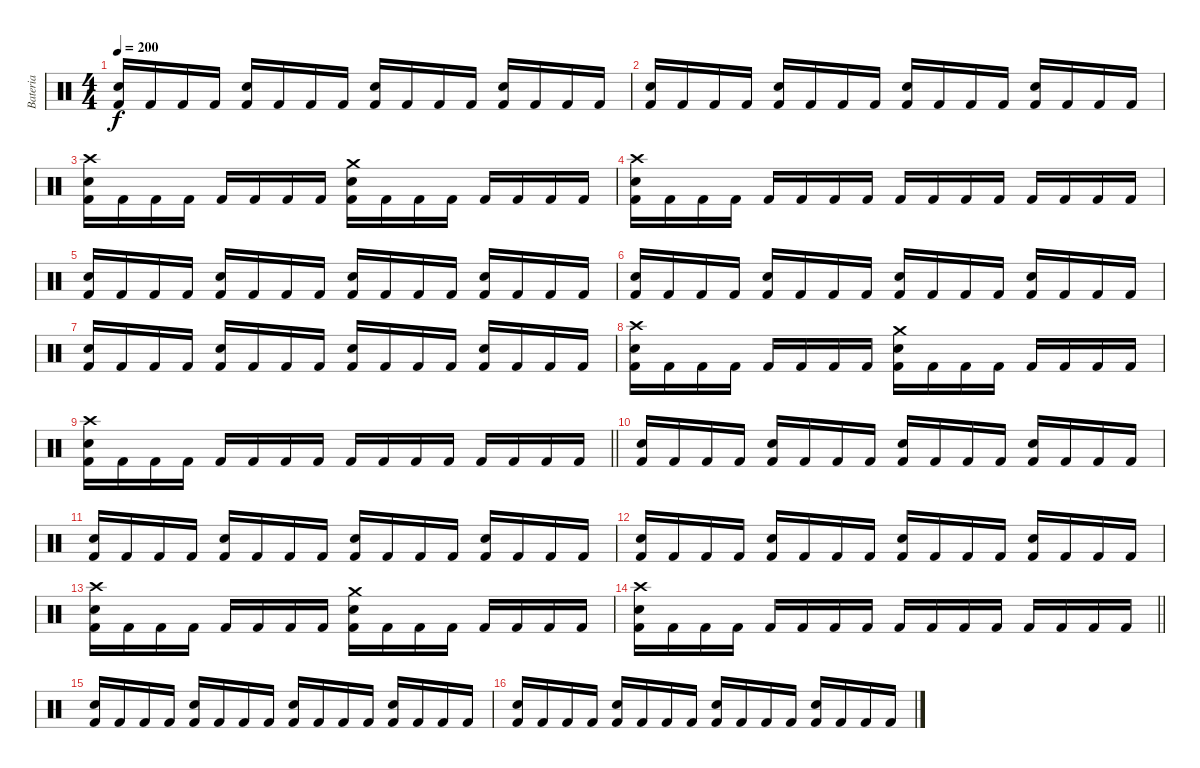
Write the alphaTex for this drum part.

\track ("Bateria" "Bateria") {instrument percussion}
\staff {score}
\articulation defaults
\ts (4 4)
\tempo 200
\clef neutral
\ks c
("Electric Snare (hit)" "Kick (hit) 2").16{dy f} "Kick (hit) 2".16 "Kick (hit) 2".16 "Kick (hit) 2".16 ("Electric Snare (hit)" "Kick (hit) 2").16 "Kick (hit) 2".16 "Kick (hit) 2".16 "Kick (hit) 2".16 ("Electric Snare (hit)" "Kick (hit) 2").16 "Kick (hit) 2".16 "Kick (hit) 2".16 "Kick (hit) 2".16 ("Electric Snare (hit)" "Kick (hit) 2").16 "Kick (hit) 2".16 "Kick (hit) 2".16 "Kick (hit) 2".16 |
("Electric Snare (hit)" "Kick (hit) 2").16 "Kick (hit) 2".16 "Kick (hit) 2".16 "Kick (hit) 2".16 ("Electric Snare (hit)" "Kick (hit) 2").16 "Kick (hit) 2".16 "Kick (hit) 2".16 "Kick (hit) 2".16 ("Electric Snare (hit)" "Kick (hit) 2").16 "Kick (hit) 2".16 "Kick (hit) 2".16 "Kick (hit) 2".16 ("Electric Snare (hit)" "Kick (hit) 2").16 "Kick (hit) 2".16 "Kick (hit) 2".16 "Kick (hit) 2".16 |
("Crash high (hit)" "Electric Snare (hit)" "Kick (hit) 2").16 "Kick (hit) 2".16 "Kick (hit) 2".16 "Kick (hit) 2".16 "Kick (hit) 2".16 "Kick (hit) 2".16 "Kick (hit) 2".16 "Kick (hit) 2".16 ("Crash medium (hit)" "Electric Snare (hit)" "Kick (hit) 2").16 "Kick (hit) 2".16 "Kick (hit) 2".16 "Kick (hit) 2".16 "Kick (hit) 2".16 "Kick (hit) 2".16 "Kick (hit) 2".16 "Kick (hit) 2".16 |
("Crash high (hit)" "Electric Snare (hit)" "Kick (hit) 2").16 "Kick (hit) 2".16 "Kick (hit) 2".16 "Kick (hit) 2".16 "Kick (hit) 2".16 "Kick (hit) 2".16 "Kick (hit) 2".16 "Kick (hit) 2".16 "Kick (hit) 2".16 "Kick (hit) 2".16 "Kick (hit) 2".16 "Kick (hit) 2".16 "Kick (hit) 2".16 "Kick (hit) 2".16 "Kick (hit) 2".16 "Kick (hit) 2".16 |
("Electric Snare (hit)" "Kick (hit) 2").16 "Kick (hit) 2".16 "Kick (hit) 2".16 "Kick (hit) 2".16 ("Electric Snare (hit)" "Kick (hit) 2").16 "Kick (hit) 2".16 "Kick (hit) 2".16 "Kick (hit) 2".16 ("Electric Snare (hit)" "Kick (hit) 2").16 "Kick (hit) 2".16 "Kick (hit) 2".16 "Kick (hit) 2".16 ("Electric Snare (hit)" "Kick (hit) 2").16 "Kick (hit) 2".16 "Kick (hit) 2".16 "Kick (hit) 2".16 |
("Electric Snare (hit)" "Kick (hit) 2").16 "Kick (hit) 2".16 "Kick (hit) 2".16 "Kick (hit) 2".16 ("Electric Snare (hit)" "Kick (hit) 2").16 "Kick (hit) 2".16 "Kick (hit) 2".16 "Kick (hit) 2".16 ("Electric Snare (hit)" "Kick (hit) 2").16 "Kick (hit) 2".16 "Kick (hit) 2".16 "Kick (hit) 2".16 ("Electric Snare (hit)" "Kick (hit) 2").16 "Kick (hit) 2".16 "Kick (hit) 2".16 "Kick (hit) 2".16 |
("Electric Snare (hit)" "Kick (hit) 2").16 "Kick (hit) 2".16 "Kick (hit) 2".16 "Kick (hit) 2".16 ("Electric Snare (hit)" "Kick (hit) 2").16 "Kick (hit) 2".16 "Kick (hit) 2".16 "Kick (hit) 2".16 ("Electric Snare (hit)" "Kick (hit) 2").16 "Kick (hit) 2".16 "Kick (hit) 2".16 "Kick (hit) 2".16 ("Electric Snare (hit)" "Kick (hit) 2").16 "Kick (hit) 2".16 "Kick (hit) 2".16 "Kick (hit) 2".16 |
("Crash high (hit)" "Electric Snare (hit)" "Kick (hit) 2").16 "Kick (hit) 2".16 "Kick (hit) 2".16 "Kick (hit) 2".16 "Kick (hit) 2".16 "Kick (hit) 2".16 "Kick (hit) 2".16 "Kick (hit) 2".16 ("Crash medium (hit)" "Electric Snare (hit)" "Kick (hit) 2").16 "Kick (hit) 2".16 "Kick (hit) 2".16 "Kick (hit) 2".16 "Kick (hit) 2".16 "Kick (hit) 2".16 "Kick (hit) 2".16 "Kick (hit) 2".16 |
\barLineRight lightlight
("Crash high (hit)" "Electric Snare (hit)" "Kick (hit) 2").16 "Kick (hit) 2".16 "Kick (hit) 2".16 "Kick (hit) 2".16 "Kick (hit) 2".16 "Kick (hit) 2".16 "Kick (hit) 2".16 "Kick (hit) 2".16 "Kick (hit) 2".16 "Kick (hit) 2".16 "Kick (hit) 2".16 "Kick (hit) 2".16 "Kick (hit) 2".16 "Kick (hit) 2".16 "Kick (hit) 2".16 "Kick (hit) 2".16 |
("Electric Snare (hit)" "Kick (hit) 2").16 "Kick (hit) 2".16 "Kick (hit) 2".16 "Kick (hit) 2".16 ("Electric Snare (hit)" "Kick (hit) 2").16 "Kick (hit) 2".16 "Kick (hit) 2".16 "Kick (hit) 2".16 ("Electric Snare (hit)" "Kick (hit) 2").16 "Kick (hit) 2".16 "Kick (hit) 2".16 "Kick (hit) 2".16 ("Electric Snare (hit)" "Kick (hit) 2").16 "Kick (hit) 2".16 "Kick (hit) 2".16 "Kick (hit) 2".16 |
("Electric Snare (hit)" "Kick (hit) 2").16 "Kick (hit) 2".16 "Kick (hit) 2".16 "Kick (hit) 2".16 ("Electric Snare (hit)" "Kick (hit) 2").16 "Kick (hit) 2".16 "Kick (hit) 2".16 "Kick (hit) 2".16 ("Electric Snare (hit)" "Kick (hit) 2").16 "Kick (hit) 2".16 "Kick (hit) 2".16 "Kick (hit) 2".16 ("Electric Snare (hit)" "Kick (hit) 2").16 "Kick (hit) 2".16 "Kick (hit) 2".16 "Kick (hit) 2".16 |
("Electric Snare (hit)" "Kick (hit) 2").16 "Kick (hit) 2".16 "Kick (hit) 2".16 "Kick (hit) 2".16 ("Electric Snare (hit)" "Kick (hit) 2").16 "Kick (hit) 2".16 "Kick (hit) 2".16 "Kick (hit) 2".16 ("Electric Snare (hit)" "Kick (hit) 2").16 "Kick (hit) 2".16 "Kick (hit) 2".16 "Kick (hit) 2".16 ("Electric Snare (hit)" "Kick (hit) 2").16 "Kick (hit) 2".16 "Kick (hit) 2".16 "Kick (hit) 2".16 |
("Crash high (hit)" "Electric Snare (hit)" "Kick (hit) 2").16 "Kick (hit) 2".16 "Kick (hit) 2".16 "Kick (hit) 2".16 "Kick (hit) 2".16 "Kick (hit) 2".16 "Kick (hit) 2".16 "Kick (hit) 2".16 ("Crash medium (hit)" "Electric Snare (hit)" "Kick (hit) 2").16 "Kick (hit) 2".16 "Kick (hit) 2".16 "Kick (hit) 2".16 "Kick (hit) 2".16 "Kick (hit) 2".16 "Kick (hit) 2".16 "Kick (hit) 2".16 |
\barLineRight lightlight
("Crash high (hit)" "Electric Snare (hit)" "Kick (hit) 2").16 "Kick (hit) 2".16 "Kick (hit) 2".16 "Kick (hit) 2".16 "Kick (hit) 2".16 "Kick (hit) 2".16 "Kick (hit) 2".16 "Kick (hit) 2".16 "Kick (hit) 2".16 "Kick (hit) 2".16 "Kick (hit) 2".16 "Kick (hit) 2".16 "Kick (hit) 2".16 "Kick (hit) 2".16 "Kick (hit) 2".16 "Kick (hit) 2".16 |
("Electric Snare (hit)" "Kick (hit) 2").16 "Kick (hit) 2".16 "Kick (hit) 2".16 "Kick (hit) 2".16 ("Electric Snare (hit)" "Kick (hit) 2").16 "Kick (hit) 2".16 "Kick (hit) 2".16 "Kick (hit) 2".16 ("Electric Snare (hit)" "Kick (hit) 2").16 "Kick (hit) 2".16 "Kick (hit) 2".16 "Kick (hit) 2".16 ("Electric Snare (hit)" "Kick (hit) 2").16 "Kick (hit) 2".16 "Kick (hit) 2".16 "Kick (hit) 2".16 |
("Electric Snare (hit)" "Kick (hit) 2").16 "Kick (hit) 2".16 "Kick (hit) 2".16 "Kick (hit) 2".16 ("Electric Snare (hit)" "Kick (hit) 2").16 "Kick (hit) 2".16 "Kick (hit) 2".16 "Kick (hit) 2".16 ("Electric Snare (hit)" "Kick (hit) 2").16 "Kick (hit) 2".16 "Kick (hit) 2".16 "Kick (hit) 2".16 ("Electric Snare (hit)" "Kick (hit) 2").16 "Kick (hit) 2".16 "Kick (hit) 2".16 "Kick (hit) 2".16
